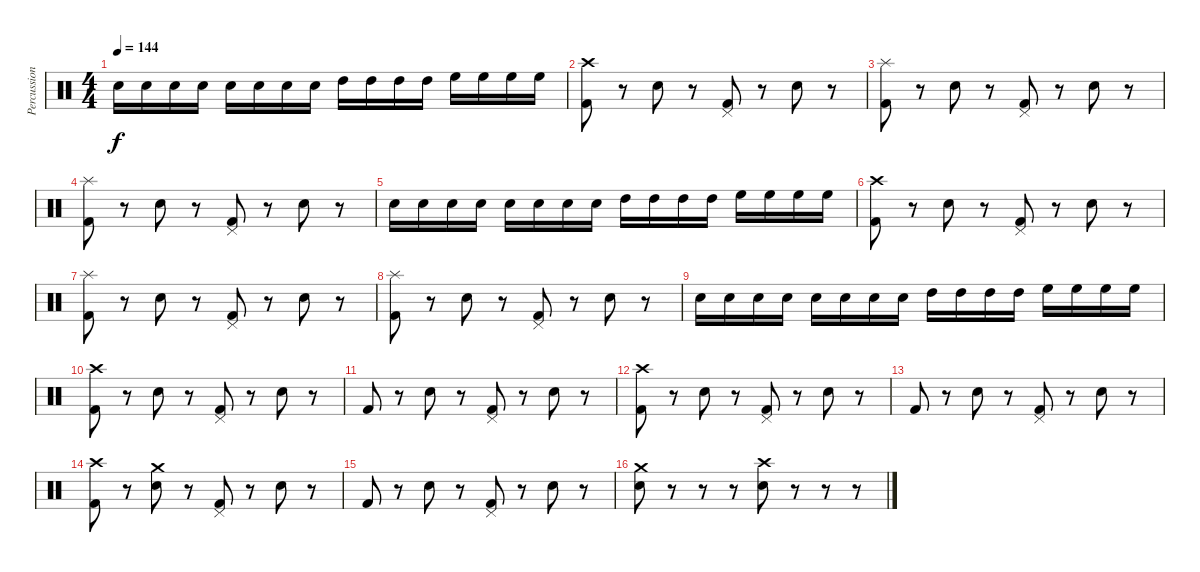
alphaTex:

\track ("Percussion" "Percussion") {instrument percussion}
\staff {score}
\articulation defaults
\ts (4 4)
\tempo 144
\clef neutral
\ks c "Electric Snare (hit)".16{dy f} "Electric Snare (hit)".16 "Electric Snare (hit)".16 "Electric Snare (hit)".16 "Snare (hit) 2".16 "Snare (hit) 2".16 "Snare (hit) 2".16 "Snare (hit) 2".16 "High Tom (hit)".16 "High Tom (hit)".16 "High Tom (hit)".16 "High Tom (hit)".16 "High Floor Tom (hit)".16 "High Floor Tom (hit)".16 "High Floor Tom (hit)".16 "High Floor Tom (hit)".16
|
("Crash high (hit)" "Kick (hit) 2").8 r.8 "Snare (hit) 2".8 r.8 ("Pedal Hi-Hat (hit)" "Kick (hit) 2").8 r.8 "Snare (hit) 2".8 r.8 |
("Kick (hit) 2" "Splash (hit)").8 r.8 "Snare (hit) 2".8 r.8 ("Pedal Hi-Hat (hit)" "Kick (hit) 2").8 r.8 "Snare (hit) 2".8 r.8 |
("Kick (hit) 2" "Splash (hit)").8 r.8 "Snare (hit) 2".8 r.8 ("Pedal Hi-Hat (hit)" "Kick (hit) 2").8 r.8 "Snare (hit) 2".8 r.8 |
"Electric Snare (hit)".16 "Electric Snare (hit)".16 "Electric Snare (hit)".16 "Electric Snare (hit)".16 "Snare (hit) 2".16 "Snare (hit) 2".16 "Snare (hit) 2".16 "Snare (hit) 2".16 "High Tom (hit)".16 "High Tom (hit)".16 "High Tom (hit)".16 "High Tom (hit)".16 "High Floor Tom (hit)".16 "High Floor Tom (hit)".16 "High Floor Tom (hit)".16 "High Floor Tom (hit)".16 |
("Crash high (hit)" "Kick (hit) 2").8 r.8 "Snare (hit) 2".8 r.8 ("Pedal Hi-Hat (hit)" "Kick (hit) 2").8 r.8 "Snare (hit) 2".8 r.8 |
("Kick (hit) 2" "Splash (hit)").8 r.8 "Snare (hit) 2".8 r.8 ("Pedal Hi-Hat (hit)" "Kick (hit) 2").8 r.8 "Snare (hit) 2".8 r.8 |
("Kick (hit) 2" "Splash (hit)").8 r.8 "Snare (hit) 2".8 r.8 ("Pedal Hi-Hat (hit)" "Kick (hit) 2").8 r.8 "Snare (hit) 2".8 r.8 |
"Electric Snare (hit)".16 "Electric Snare (hit)".16 "Electric Snare (hit)".16 "Electric Snare (hit)".16 "Snare (hit) 2".16 "Snare (hit) 2".16 "Snare (hit) 2".16 "Snare (hit) 2".16 "High Tom (hit)".16 "High Tom (hit)".16 "High Tom (hit)".16 "High Tom (hit)".16 "High Floor Tom (hit)".16 "High Floor Tom (hit)".16 "High Floor Tom (hit)".16 "High Floor Tom (hit)".16 |
("Kick (hit) 2" "Crash high (hit)").8 r.8 "Snare (hit) 2".8 r.8 ("Pedal Hi-Hat (hit)" "Kick (hit) 2").8 r.8 "Snare (hit) 2".8 r.8 |
"Kick (hit) 2".8 r.8 "Snare (hit) 2".8 r.8 ("Pedal Hi-Hat (hit)" "Kick (hit) 2").8 r.8 "Snare (hit) 2".8 r.8 |
("Kick (hit) 2" "Crash high (hit)").8 r.8 "Snare (hit) 2".8 r.8 ("Pedal Hi-Hat (hit)" "Kick (hit) 2").8 r.8 "Snare (hit) 2".8 r.8 |
"Kick (hit) 2".8 r.8 "Snare (hit) 2".8 r.8 ("Pedal Hi-Hat (hit)" "Kick (hit) 2").8 r.8 "Snare (hit) 2".8 r.8 |
("Kick (hit) 2" "Crash high (hit)").8 r.8 ("Snare (hit) 2" "Crash medium (hit)").8 r.8 ("Pedal Hi-Hat (hit)" "Kick (hit) 2").8 r.8 "Snare (hit) 2".8 r.8 |
"Kick (hit) 2".8 r.8 "Snare (hit) 2".8 r.8 ("Pedal Hi-Hat (hit)" "Kick (hit) 2").8 r.8 "Snare (hit) 2".8 r.8 |
("Snare (hit) 2" "Crash medium (hit)").8 r.8 r.8 r.8 ("Snare (hit) 2" "Crash high (hit)").8 r.8 r.8 r.8
